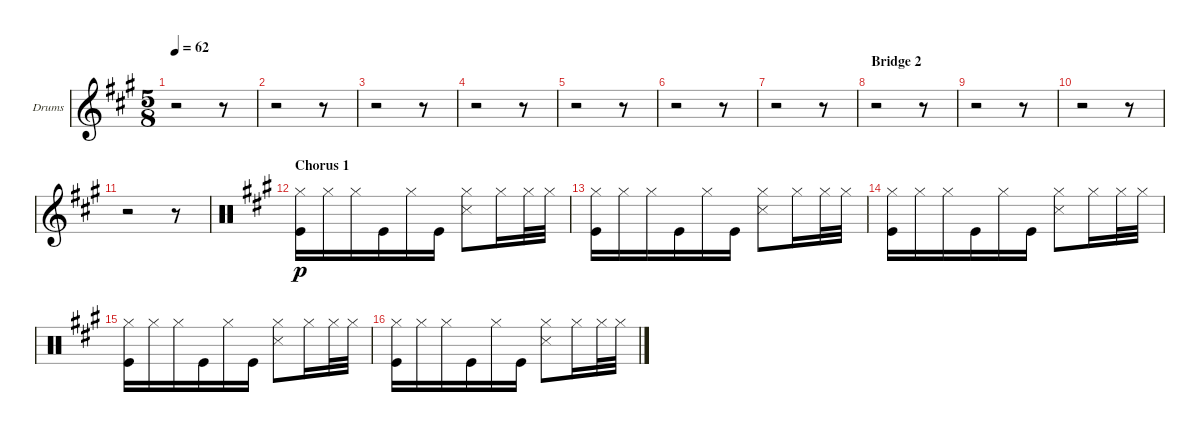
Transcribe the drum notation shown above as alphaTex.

\defaultSystemsLayout 4
\bracketExtendMode groupsimilarinstruments
\firstSystemTrackNameOrientation horizontal
\otherSystemsTrackNameOrientation horizontal
\track ("Drum Machine" "Drums") {instrument percussion}
\staff {score}
\articulation defaults
\ts (5 8)
\tempo 62
\clef g2
\scale
0.333333
\ks f#minor
r.2{dy p} r.8 |
\scale
0.333333 r.2 r.8 |
\scale
0.333333 r.2 r.8 |
\scale
0.333333 r.2 r.8 |
\scale
0.333333 r.2 r.8 |
\scale
0.333333 r.2 r.8 |
\scale
0.333333 r.2 r.8 |
\section ("" "Bridge 2")
\scale
0.333333 r.2 r.8 |
\scale
0.333333 r.2 r.8 |
\scale
0.333333 r.2 r.8 |
\scale
0.333333 r.2 r.8 |
\section ("" "Chorus 1")
\clef neutral
\scale
0.333333 ("Hi-Hat (closed)" "Kick (hit)").16 "Hi-Hat (closed)".16 "Hi-Hat (closed)".16 "Kick (hit)".16 "Hi-Hat (closed)".16 "Kick (hit)".16 ("Snare (side stick) 3" "Hi-Hat (closed)").8 "Hi-Hat (closed)".16 "Hi-Hat (closed)".32 "Hi-Hat (closed)".32 |
\scale
0.333333 ("Hi-Hat (closed)" "Kick (hit)").16 "Hi-Hat (closed)".16 "Hi-Hat (closed)".16 "Kick (hit)".16 "Hi-Hat (closed)".16 "Kick (hit)".16 ("Snare (side stick) 3" "Hi-Hat (closed)").8 "Hi-Hat (closed)".16 "Hi-Hat (closed)".32 "Hi-Hat (closed)".32 |
\scale
0.333333 ("Hi-Hat (closed)" "Kick (hit)").16 "Hi-Hat (closed)".16 "Hi-Hat (closed)".16 "Kick (hit)".16 "Hi-Hat (closed)".16 "Kick (hit)".16 ("Snare (side stick) 3" "Hi-Hat (closed)").8 "Hi-Hat (closed)".16 "Hi-Hat (closed)".32 "Hi-Hat (closed)".32 |
\scale
0.333333 ("Hi-Hat (closed)" "Kick (hit)").16 "Hi-Hat (closed)".16 "Hi-Hat (closed)".16 "Kick (hit)".16 "Hi-Hat (closed)".16 "Kick (hit)".16 ("Snare (side stick) 3" "Hi-Hat (closed)").8 "Hi-Hat (closed)".16 "Hi-Hat (closed)".32 "Hi-Hat (closed)".32 |
\scale
0.333333 ("Hi-Hat (closed)" "Kick (hit)").16 "Hi-Hat (closed)".16 "Hi-Hat (closed)".16 "Kick (hit)".16 "Hi-Hat (closed)".16 "Kick (hit)".16 ("Snare (side stick) 3" "Hi-Hat (closed)").8 "Hi-Hat (closed)".16 "Hi-Hat (closed)".32 "Hi-Hat (closed)".32
